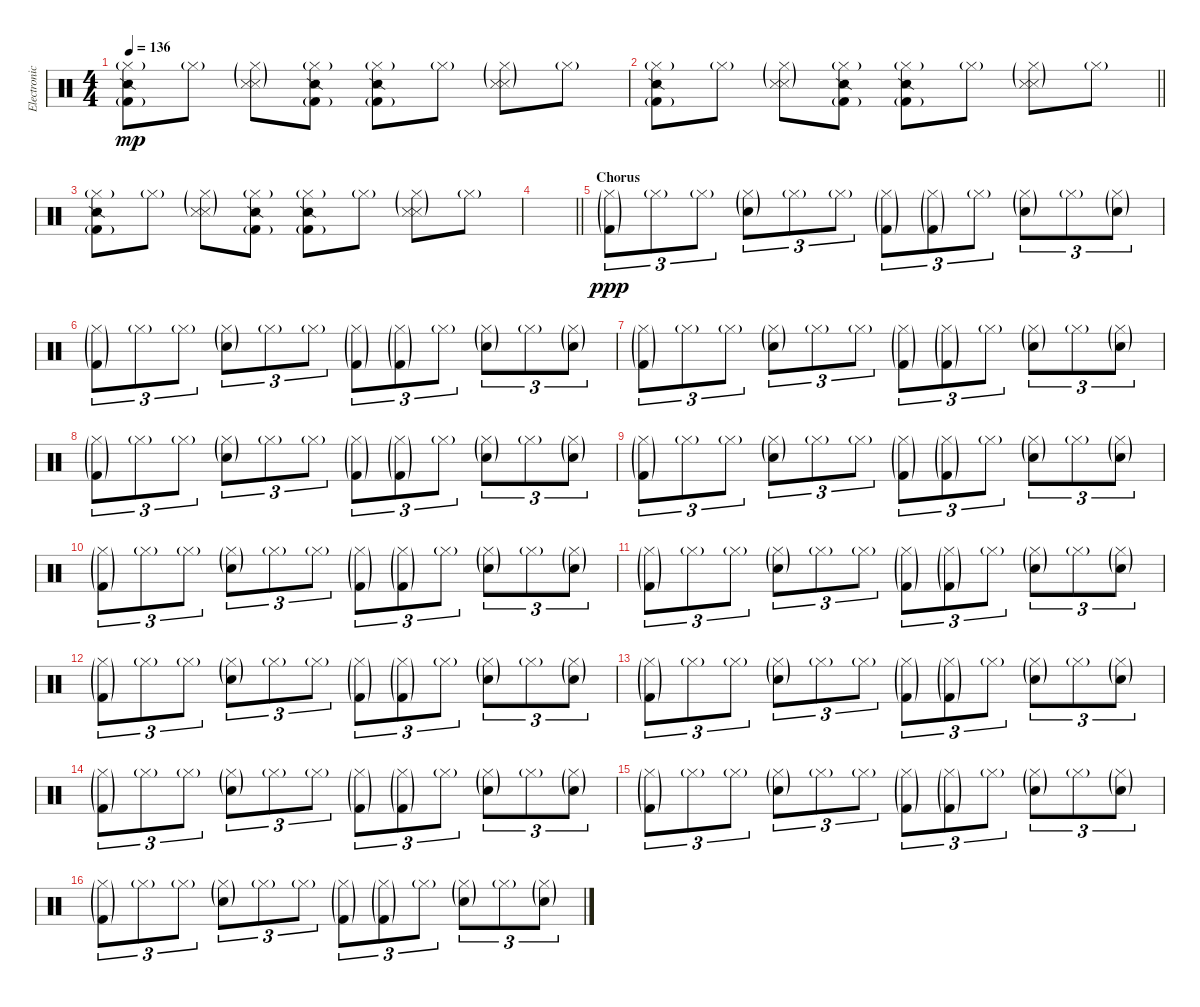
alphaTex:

\track ("Electronic Drums" "Electronic") {instrument percussion}
\staff {score}
\articulation defaults
\ts (4 4)
\tempo 136
\clef neutral
\ks c
("Hi-Hat (closed)"{g} "Kick (hit) 2"{g} "Snare (side stick) 2").8{dy mp} "Hi-Hat (closed)"{g}.8 ("Hi-Hat (closed)"{g} "Snare (side stick) 3"{g} "Metronome (hit)").8 ("Hi-Hat (closed)"{g} "Kick (hit) 2"{g} "Snare (side stick) 2").8 ("Hi-Hat (closed)"{g} "Kick (hit) 2"{g} "Snare (side stick) 2").8 "Hi-Hat (closed)"{g}.8 ("Hi-Hat (closed)"{g} "Snare (side stick) 3"{g} "Metronome (hit)").8 "Hi-Hat (closed)"{g}.8 |
\barLineRight lightlight
("Hi-Hat (closed)"{g} "Kick (hit) 2"{g} "Snare (side stick) 2").8 "Hi-Hat (closed)"{g}.8 ("Hi-Hat (closed)"{g} "Snare (side stick) 3"{g} "Metronome (hit)").8 ("Hi-Hat (closed)"{g} "Kick (hit) 2"{g} "Snare (side stick) 2").8 ("Hi-Hat (closed)"{g} "Kick (hit) 2"{g} "Snare (side stick) 2").8 "Hi-Hat (closed)"{g}.8 ("Hi-Hat (closed)"{g} "Snare (side stick) 3"{g} "Metronome (hit)").8 "Hi-Hat (closed)"{g}.8 |
("Hi-Hat (closed)"{g} "Kick (hit) 2"{g} "Snare (side stick) 2").8 "Hi-Hat (closed)"{g}.8 ("Hi-Hat (closed)"{g} "Snare (side stick) 3"{g} "Metronome (hit)").8 ("Hi-Hat (closed)"{g} "Kick (hit) 2"{g} "Snare (side stick) 2").8 ("Hi-Hat (closed)"{g} "Kick (hit) 2"{g} "Snare (side stick) 2").8 "Hi-Hat (closed)"{g}.8 ("Hi-Hat (closed)"{g} "Snare (side stick) 3"{g} "Metronome (hit)").8 "Hi-Hat (closed)"{g}.8 |
\barLineRight lightlight
|
\section ("" "Chorus")
("Hi-Hat (closed)"{g} "Kick (hit) 2"{g}).8{tu (3 2) dy ppp} "Hi-Hat (closed)"{g}.8{tu (3 2)} "Hi-Hat (closed)"{g}.8{tu (3 2)} ("Hi-Hat (closed)"{g} "Snare (hit) 2"{g}).8{tu (3 2)} "Hi-Hat (closed)"{g}.8{tu (3 2)} "Hi-Hat (closed)"{g}.8{tu (3 2)} ("Hi-Hat (closed)"{g} "Kick (hit) 2"{g}).8{tu (3 2)} ("Hi-Hat (closed)"{g} "Kick (hit) 2"{g}).8{tu (3 2)} "Hi-Hat (closed)"{g}.8{tu (3 2)} ("Hi-Hat (closed)"{g} "Snare (hit) 2"{g}).8{tu (3 2)} "Hi-Hat (closed)"{g}.8{tu (3 2)} ("Hi-Hat (closed)"{g} "Snare (hit) 2"{g}).8{tu (3 2)} |
("Hi-Hat (closed)"{g} "Kick (hit) 2"{g}).8{tu (3 2)} "Hi-Hat (closed)"{g}.8{tu (3 2)} "Hi-Hat (closed)"{g}.8{tu (3 2)} ("Hi-Hat (closed)"{g} "Snare (hit) 2"{g}).8{tu (3 2)} "Hi-Hat (closed)"{g}.8{tu (3 2)} "Hi-Hat (closed)"{g}.8{tu (3 2)} ("Hi-Hat (closed)"{g} "Kick (hit) 2"{g}).8{tu (3 2)} ("Hi-Hat (closed)"{g} "Kick (hit) 2"{g}).8{tu (3 2)} "Hi-Hat (closed)"{g}.8{tu (3 2)} ("Hi-Hat (closed)"{g} "Snare (hit) 2"{g}).8{tu (3 2)} "Hi-Hat (closed)"{g}.8{tu (3 2)} ("Hi-Hat (closed)"{g} "Snare (hit) 2"{g}).8{tu (3 2)} |
("Hi-Hat (closed)"{g} "Kick (hit) 2"{g}).8{tu (3 2)} "Hi-Hat (closed)"{g}.8{tu (3 2)} "Hi-Hat (closed)"{g}.8{tu (3 2)} ("Hi-Hat (closed)"{g} "Snare (hit) 2"{g}).8{tu (3 2)} "Hi-Hat (closed)"{g}.8{tu (3 2)} "Hi-Hat (closed)"{g}.8{tu (3 2)} ("Hi-Hat (closed)"{g} "Kick (hit) 2"{g}).8{tu (3 2)} ("Hi-Hat (closed)"{g} "Kick (hit) 2"{g}).8{tu (3 2)} "Hi-Hat (closed)"{g}.8{tu (3 2)} ("Hi-Hat (closed)"{g} "Snare (hit) 2"{g}).8{tu (3 2)} "Hi-Hat (closed)"{g}.8{tu (3 2)} ("Hi-Hat (closed)"{g} "Snare (hit) 2"{g}).8{tu (3 2)} |
("Hi-Hat (closed)"{g} "Kick (hit) 2"{g}).8{tu (3 2)} "Hi-Hat (closed)"{g}.8{tu (3 2)} "Hi-Hat (closed)"{g}.8{tu (3 2)} ("Hi-Hat (closed)"{g} "Snare (hit) 2"{g}).8{tu (3 2)} "Hi-Hat (closed)"{g}.8{tu (3 2)} "Hi-Hat (closed)"{g}.8{tu (3 2)} ("Hi-Hat (closed)"{g} "Kick (hit) 2"{g}).8{tu (3 2)} ("Hi-Hat (closed)"{g} "Kick (hit) 2"{g}).8{tu (3 2)} "Hi-Hat (closed)"{g}.8{tu (3 2)} ("Hi-Hat (closed)"{g} "Snare (hit) 2"{g}).8{tu (3 2)} "Hi-Hat (closed)"{g}.8{tu (3 2)} ("Hi-Hat (closed)"{g} "Snare (hit) 2"{g}).8{tu (3 2)} |
("Hi-Hat (closed)"{g} "Kick (hit) 2"{g}).8{tu (3 2)} "Hi-Hat (closed)"{g}.8{tu (3 2)} "Hi-Hat (closed)"{g}.8{tu (3 2)} ("Hi-Hat (closed)"{g} "Snare (hit) 2"{g}).8{tu (3 2)} "Hi-Hat (closed)"{g}.8{tu (3 2)} "Hi-Hat (closed)"{g}.8{tu (3 2)} ("Hi-Hat (closed)"{g} "Kick (hit) 2"{g}).8{tu (3 2)} ("Hi-Hat (closed)"{g} "Kick (hit) 2"{g}).8{tu (3 2)} "Hi-Hat (closed)"{g}.8{tu (3 2)} ("Hi-Hat (closed)"{g} "Snare (hit) 2"{g}).8{tu (3 2)} "Hi-Hat (closed)"{g}.8{tu (3 2)} ("Hi-Hat (closed)"{g} "Snare (hit) 2"{g}).8{tu (3 2)} |
("Hi-Hat (closed)"{g} "Kick (hit) 2"{g}).8{tu (3 2)} "Hi-Hat (closed)"{g}.8{tu (3 2)} "Hi-Hat (closed)"{g}.8{tu (3 2)} ("Hi-Hat (closed)"{g} "Snare (hit) 2"{g}).8{tu (3 2)} "Hi-Hat (closed)"{g}.8{tu (3 2)} "Hi-Hat (closed)"{g}.8{tu (3 2)} ("Hi-Hat (closed)"{g} "Kick (hit) 2"{g}).8{tu (3 2)} ("Hi-Hat (closed)"{g} "Kick (hit) 2"{g}).8{tu (3 2)} "Hi-Hat (closed)"{g}.8{tu (3 2)} ("Hi-Hat (closed)"{g} "Snare (hit) 2"{g}).8{tu (3 2)} "Hi-Hat (closed)"{g}.8{tu (3 2)} ("Hi-Hat (closed)"{g} "Snare (hit) 2"{g}).8{tu (3 2)} |
("Hi-Hat (closed)"{g} "Kick (hit) 2"{g}).8{tu (3 2)} "Hi-Hat (closed)"{g}.8{tu (3 2)} "Hi-Hat (closed)"{g}.8{tu (3 2)} ("Hi-Hat (closed)"{g} "Snare (hit) 2"{g}).8{tu (3 2)} "Hi-Hat (closed)"{g}.8{tu (3 2)} "Hi-Hat (closed)"{g}.8{tu (3 2)} ("Hi-Hat (closed)"{g} "Kick (hit) 2"{g}).8{tu (3 2)} ("Hi-Hat (closed)"{g} "Kick (hit) 2"{g}).8{tu (3 2)} "Hi-Hat (closed)"{g}.8{tu (3 2)} ("Hi-Hat (closed)"{g} "Snare (hit) 2"{g}).8{tu (3 2)} "Hi-Hat (closed)"{g}.8{tu (3 2)} ("Hi-Hat (closed)"{g} "Snare (hit) 2"{g}).8{tu (3 2)} |
("Hi-Hat (closed)"{g} "Kick (hit) 2"{g}).8{tu (3 2)} "Hi-Hat (closed)"{g}.8{tu (3 2)} "Hi-Hat (closed)"{g}.8{tu (3 2)} ("Hi-Hat (closed)"{g} "Snare (hit) 2"{g}).8{tu (3 2)} "Hi-Hat (closed)"{g}.8{tu (3 2)} "Hi-Hat (closed)"{g}.8{tu (3 2)} ("Hi-Hat (closed)"{g} "Kick (hit) 2"{g}).8{tu (3 2)} ("Hi-Hat (closed)"{g} "Kick (hit) 2"{g}).8{tu (3 2)} "Hi-Hat (closed)"{g}.8{tu (3 2)} ("Hi-Hat (closed)"{g} "Snare (hit) 2"{g}).8{tu (3 2)} "Hi-Hat (closed)"{g}.8{tu (3 2)} ("Hi-Hat (closed)"{g} "Snare (hit) 2"{g}).8{tu (3 2)} |
("Hi-Hat (closed)"{g} "Kick (hit) 2"{g}).8{tu (3 2)} "Hi-Hat (closed)"{g}.8{tu (3 2)} "Hi-Hat (closed)"{g}.8{tu (3 2)} ("Hi-Hat (closed)"{g} "Snare (hit) 2"{g}).8{tu (3 2)} "Hi-Hat (closed)"{g}.8{tu (3 2)} "Hi-Hat (closed)"{g}.8{tu (3 2)} ("Hi-Hat (closed)"{g} "Kick (hit) 2"{g}).8{tu (3 2)} ("Hi-Hat (closed)"{g} "Kick (hit) 2"{g}).8{tu (3 2)} "Hi-Hat (closed)"{g}.8{tu (3 2)} ("Hi-Hat (closed)"{g} "Snare (hit) 2"{g}).8{tu (3 2)} "Hi-Hat (closed)"{g}.8{tu (3 2)} ("Hi-Hat (closed)"{g} "Snare (hit) 2"{g}).8{tu (3 2)} |
("Hi-Hat (closed)"{g} "Kick (hit) 2"{g}).8{tu (3 2)} "Hi-Hat (closed)"{g}.8{tu (3 2)} "Hi-Hat (closed)"{g}.8{tu (3 2)} ("Hi-Hat (closed)"{g} "Snare (hit) 2"{g}).8{tu (3 2)} "Hi-Hat (closed)"{g}.8{tu (3 2)} "Hi-Hat (closed)"{g}.8{tu (3 2)} ("Hi-Hat (closed)"{g} "Kick (hit) 2"{g}).8{tu (3 2)} ("Hi-Hat (closed)"{g} "Kick (hit) 2"{g}).8{tu (3 2)} "Hi-Hat (closed)"{g}.8{tu (3 2)} ("Hi-Hat (closed)"{g} "Snare (hit) 2"{g}).8{tu (3 2)} "Hi-Hat (closed)"{g}.8{tu (3 2)} ("Hi-Hat (closed)"{g} "Snare (hit) 2"{g}).8{tu (3 2)} |
("Hi-Hat (closed)"{g} "Kick (hit) 2"{g}).8{tu (3 2)} "Hi-Hat (closed)"{g}.8{tu (3 2)} "Hi-Hat (closed)"{g}.8{tu (3 2)} ("Hi-Hat (closed)"{g} "Snare (hit) 2"{g}).8{tu (3 2)} "Hi-Hat (closed)"{g}.8{tu (3 2)} "Hi-Hat (closed)"{g}.8{tu (3 2)} ("Hi-Hat (closed)"{g} "Kick (hit) 2"{g}).8{tu (3 2)} ("Hi-Hat (closed)"{g} "Kick (hit) 2"{g}).8{tu (3 2)} "Hi-Hat (closed)"{g}.8{tu (3 2)} ("Hi-Hat (closed)"{g} "Snare (hit) 2"{g}).8{tu (3 2)} "Hi-Hat (closed)"{g}.8{tu (3 2)} ("Hi-Hat (closed)"{g} "Snare (hit) 2"{g}).8{tu (3 2)} |
("Hi-Hat (closed)"{g} "Kick (hit) 2"{g}).8{tu (3 2)} "Hi-Hat (closed)"{g}.8{tu (3 2)} "Hi-Hat (closed)"{g}.8{tu (3 2)} ("Hi-Hat (closed)"{g} "Snare (hit) 2"{g}).8{tu (3 2)} "Hi-Hat (closed)"{g}.8{tu (3 2)} "Hi-Hat (closed)"{g}.8{tu (3 2)} ("Hi-Hat (closed)"{g} "Kick (hit) 2"{g}).8{tu (3 2)} ("Hi-Hat (closed)"{g} "Kick (hit) 2"{g}).8{tu (3 2)} "Hi-Hat (closed)"{g}.8{tu (3 2)} ("Hi-Hat (closed)"{g} "Snare (hit) 2"{g}).8{tu (3 2)} "Hi-Hat (closed)"{g}.8{tu (3 2)} ("Hi-Hat (closed)"{g} "Snare (hit) 2"{g}).8{tu (3 2)}
